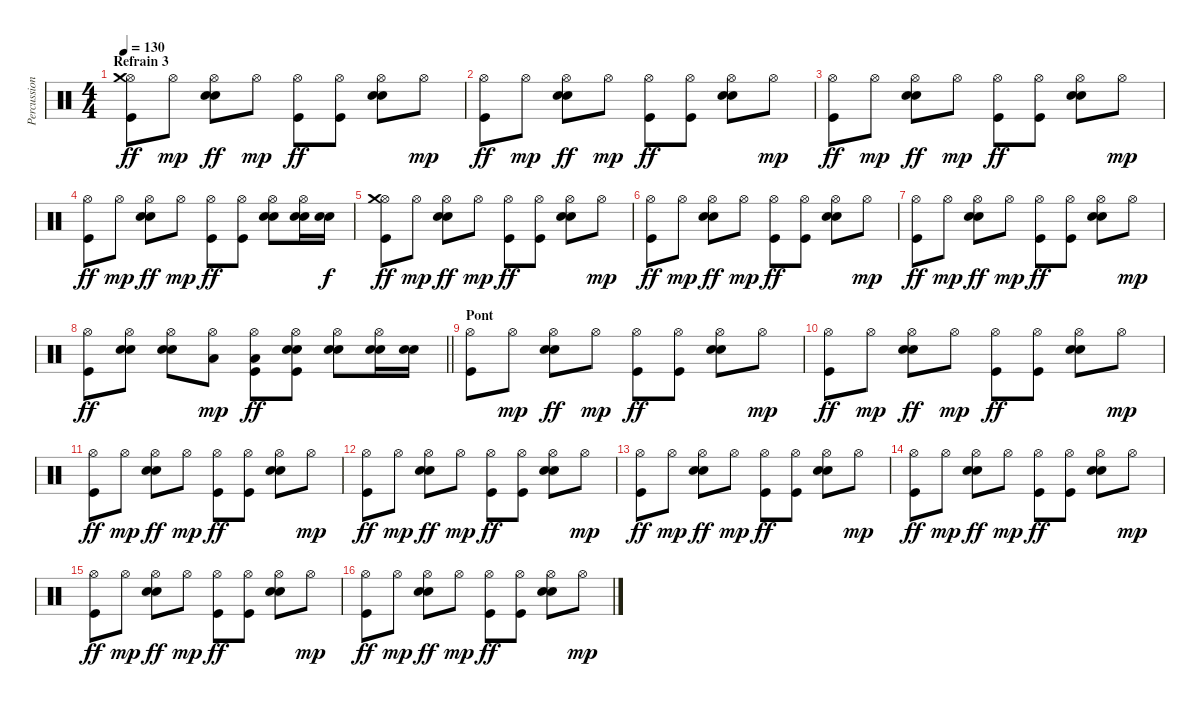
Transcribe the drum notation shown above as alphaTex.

\track ("Percussions" "Percussion") {instrument percussion}
\staff {score}
\articulation defaults
\ts (4 4)
\section ("" "Refrain 3")
\tempo 130
\clef neutral
\ks c
("Hi-Hat (open)" "Crash medium (hit)" "Kick (hit)").8{dy ff} "Hi-Hat (open)".8{dy mp} ("Hi-Hat (open)" "Snare (hit) 2" "Electric Snare (hit)").8{dy ff} "Hi-Hat (open)".8{dy mp} ("Hi-Hat (open)" "Kick (hit)").8{dy ff} ("Hi-Hat (open)" "Kick (hit)").8 ("Hi-Hat (open)" "Snare (hit) 2" "Electric Snare (hit)").8 "Hi-Hat (open)".8{dy mp} |
("Hi-Hat (open)" "Kick (hit)").8{dy ff} "Hi-Hat (open)".8{dy mp} ("Hi-Hat (open)" "Snare (hit) 2" "Electric Snare (hit)").8{dy ff} "Hi-Hat (open)".8{dy mp} ("Hi-Hat (open)" "Kick (hit)").8{dy ff} ("Hi-Hat (open)" "Kick (hit)").8 ("Hi-Hat (open)" "Snare (hit) 2" "Electric Snare (hit)").8 "Hi-Hat (open)".8{dy mp} |
("Hi-Hat (open)" "Kick (hit)").8{dy ff} "Hi-Hat (open)".8{dy mp} ("Hi-Hat (open)" "Snare (hit) 2" "Electric Snare (hit)").8{dy ff} "Hi-Hat (open)".8{dy mp} ("Hi-Hat (open)" "Kick (hit)").8{dy ff} ("Hi-Hat (open)" "Kick (hit)").8 ("Hi-Hat (open)" "Snare (hit) 2" "Electric Snare (hit)").8 "Hi-Hat (open)".8{dy mp} |
("Hi-Hat (open)" "Kick (hit)").8{dy ff} "Hi-Hat (open)".8{dy mp} ("Hi-Hat (open)" "Snare (hit) 2" "Electric Snare (hit)").8{dy ff} "Hi-Hat (open)".8{dy mp} ("Hi-Hat (open)" "Kick (hit)").8{dy ff} ("Hi-Hat (open)" "Kick (hit)").8 ("Hi-Hat (open)" "Snare (hit) 2" "Electric Snare (hit)").8 ("Hi-Hat (open)" "Snare (hit) 2" "Electric Snare (hit)").16 ("Snare (hit) 2" "Electric Snare (hit)").16{dy f} |
("Hi-Hat (open)" "Crash medium (hit)" "Kick (hit)").8{dy ff} "Hi-Hat (open)".8{dy mp} ("Hi-Hat (open)" "Snare (hit) 2" "Electric Snare (hit)").8{dy ff} "Hi-Hat (open)".8{dy mp} ("Hi-Hat (open)" "Kick (hit)").8{dy ff} ("Hi-Hat (open)" "Kick (hit)").8 ("Hi-Hat (open)" "Snare (hit) 2" "Electric Snare (hit)").8 "Hi-Hat (open)".8{dy mp} |
("Hi-Hat (open)" "Kick (hit)").8{dy ff} "Hi-Hat (open)".8{dy mp} ("Hi-Hat (open)" "Snare (hit) 2" "Electric Snare (hit)").8{dy ff} "Hi-Hat (open)".8{dy mp} ("Hi-Hat (open)" "Kick (hit)").8{dy ff} ("Hi-Hat (open)" "Kick (hit)").8 ("Hi-Hat (open)" "Snare (hit) 2" "Electric Snare (hit)").8 "Hi-Hat (open)".8{dy mp} |
("Hi-Hat (open)" "Kick (hit)").8{dy ff} "Hi-Hat (open)".8{dy mp} ("Hi-Hat (open)" "Snare (hit) 2" "Electric Snare (hit)").8{dy ff} "Hi-Hat (open)".8{dy mp} ("Hi-Hat (open)" "Kick (hit)").8{dy ff} ("Hi-Hat (open)" "Kick (hit)").8 ("Hi-Hat (open)" "Snare (hit) 2" "Electric Snare (hit)").8 "Hi-Hat (open)".8{dy mp} |
\barLineRight lightlight
("Hi-Hat (open)" "Kick (hit)").8{dy ff} ("Hi-Hat (open)" "Snare (hit) 2" "Electric Snare (hit)").8 ("Hi-Hat (open)" "Snare (hit) 2" "Electric Snare (hit)").8 ("Hi-Hat (open)" "Low Floor Tom (hit)").8{dy mp} ("Hi-Hat (open)" "Low Floor Tom (hit)" "Kick (hit)").8{dy ff} ("Hi-Hat (open)" "Snare (hit) 2" "Electric Snare (hit)" "Kick (hit)").8 ("Hi-Hat (open)" "Snare (hit) 2" "Electric Snare (hit)").8 ("Hi-Hat (open)" "Snare (hit) 2" "Electric Snare (hit)").16 ("Snare (hit) 2" "Electric Snare (hit)").16 |
\section ("" "Pont")
("Hi-Hat (open)" "Kick (hit)").8 "Hi-Hat (open)".8{dy mp} ("Hi-Hat (open)" "Snare (hit) 2" "Electric Snare (hit)").8{dy ff} "Hi-Hat (open)".8{dy mp} ("Hi-Hat (open)" "Kick (hit)").8{dy ff} ("Hi-Hat (open)" "Kick (hit)").8 ("Hi-Hat (open)" "Snare (hit) 2" "Electric Snare (hit)").8 "Hi-Hat (open)".8{dy mp} |
("Hi-Hat (open)" "Kick (hit)").8{dy ff} "Hi-Hat (open)".8{dy mp} ("Hi-Hat (open)" "Snare (hit) 2" "Electric Snare (hit)").8{dy ff} "Hi-Hat (open)".8{dy mp} ("Hi-Hat (open)" "Kick (hit)").8{dy ff} ("Hi-Hat (open)" "Kick (hit)").8 ("Hi-Hat (open)" "Snare (hit) 2" "Electric Snare (hit)").8 "Hi-Hat (open)".8{dy mp} |
("Hi-Hat (open)" "Kick (hit)").8{dy ff} "Hi-Hat (open)".8{dy mp} ("Hi-Hat (open)" "Snare (hit) 2" "Electric Snare (hit)").8{dy ff} "Hi-Hat (open)".8{dy mp} ("Hi-Hat (open)" "Kick (hit)").8{dy ff} ("Hi-Hat (open)" "Kick (hit)").8 ("Hi-Hat (open)" "Snare (hit) 2" "Electric Snare (hit)").8 "Hi-Hat (open)".8{dy mp} |
("Hi-Hat (open)" "Kick (hit)").8{dy ff} "Hi-Hat (open)".8{dy mp} ("Hi-Hat (open)" "Snare (hit) 2" "Electric Snare (hit)").8{dy ff} "Hi-Hat (open)".8{dy mp} ("Hi-Hat (open)" "Kick (hit)").8{dy ff} ("Hi-Hat (open)" "Kick (hit)").8 ("Hi-Hat (open)" "Snare (hit) 2" "Electric Snare (hit)").8 "Hi-Hat (open)".8{dy mp} |
("Hi-Hat (open)" "Kick (hit)").8{dy ff} "Hi-Hat (open)".8{dy mp} ("Hi-Hat (open)" "Snare (hit) 2" "Electric Snare (hit)").8{dy ff} "Hi-Hat (open)".8{dy mp} ("Hi-Hat (open)" "Kick (hit)").8{dy ff} ("Hi-Hat (open)" "Kick (hit)").8 ("Hi-Hat (open)" "Snare (hit) 2" "Electric Snare (hit)").8 "Hi-Hat (open)".8{dy mp} |
("Hi-Hat (open)" "Kick (hit)").8{dy ff} "Hi-Hat (open)".8{dy mp} ("Hi-Hat (open)" "Snare (hit) 2" "Electric Snare (hit)").8{dy ff} "Hi-Hat (open)".8{dy mp} ("Hi-Hat (open)" "Kick (hit)").8{dy ff} ("Hi-Hat (open)" "Kick (hit)").8 ("Hi-Hat (open)" "Snare (hit) 2" "Electric Snare (hit)").8 "Hi-Hat (open)".8{dy mp} |
("Hi-Hat (open)" "Kick (hit)").8{dy ff} "Hi-Hat (open)".8{dy mp} ("Hi-Hat (open)" "Snare (hit) 2" "Electric Snare (hit)").8{dy ff} "Hi-Hat (open)".8{dy mp} ("Hi-Hat (open)" "Kick (hit)").8{dy ff} ("Hi-Hat (open)" "Kick (hit)").8 ("Hi-Hat (open)" "Snare (hit) 2" "Electric Snare (hit)").8 "Hi-Hat (open)".8{dy mp} |
("Hi-Hat (open)" "Kick (hit)").8{dy ff} "Hi-Hat (open)".8{dy mp} ("Hi-Hat (open)" "Snare (hit) 2" "Electric Snare (hit)").8{dy ff} "Hi-Hat (open)".8{dy mp} ("Hi-Hat (open)" "Kick (hit)").8{dy ff} ("Hi-Hat (open)" "Kick (hit)").8 ("Hi-Hat (open)" "Snare (hit) 2" "Electric Snare (hit)").8 "Hi-Hat (open)".8{dy mp}
